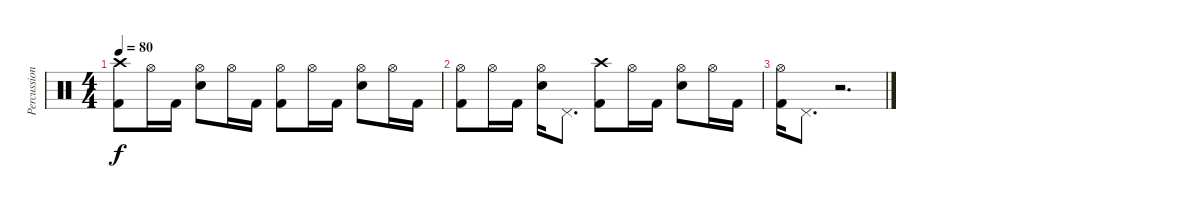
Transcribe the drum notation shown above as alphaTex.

\track ("Percussion" "Percussion") {instrument percussion}
\staff {score}
\articulation defaults
\ts (4 4)
\tempo 80
\clef neutral
\ks c
("Crash high (hit)" "Kick (hit) 2").8{dy f} "Hi-Hat (open)".16 "Kick (hit) 2".16 ("Hi-Hat (open)" "Electric Snare (hit)").8 "Hi-Hat (open)".16 "Kick (hit) 2".16 ("Hi-Hat (open)" "Kick (hit) 2").8 "Hi-Hat (open)".16 "Kick (hit) 2".16 ("Hi-Hat (open)" "Electric Snare (hit)").8 "Hi-Hat (open)".16 "Kick (hit) 2".16 |
("Hi-Hat (open)" "Kick (hit) 2").8 "Hi-Hat (open)".16 "Kick (hit) 2".16 ("Hi-Hat (open)" "Electric Snare (hit)").16 "Pedal Hi-Hat (hit)".8{d} ("Crash high (hit)" "Kick (hit) 2").8 "Hi-Hat (open)".16 "Kick (hit) 2".16 ("Hi-Hat (open)" "Electric Snare (hit)").8 "Hi-Hat (open)".16 "Kick (hit) 2".16 |
("Hi-Hat (open)" "Kick (hit) 2").16 "Pedal Hi-Hat (hit)".8{d} r.2{d}
